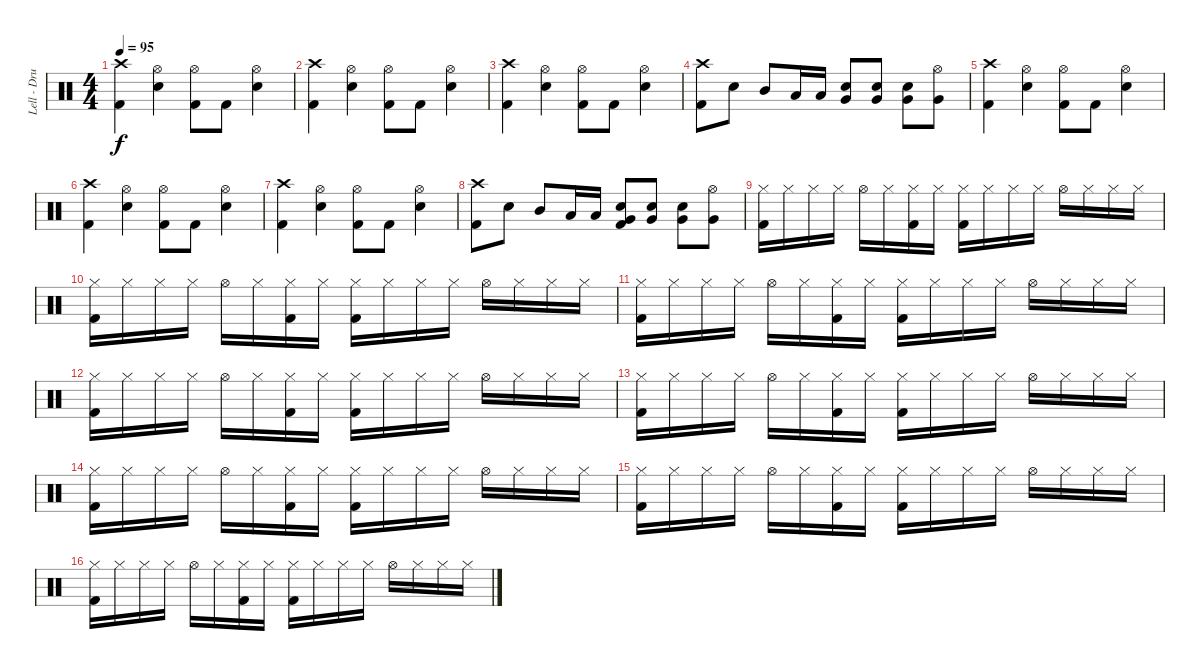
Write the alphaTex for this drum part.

\track ("Lell - Drums" "Lell - Dru") {instrument percussion}
\staff {score}
\articulation defaults
\ts (4 4)
\tempo 95
\clef neutral
\ks c
("Crash high (hit)" "Kick (hit) 2").4{dy f} ("Hi-Hat (open)" "Snare (hit) 2").4 ("Hi-Hat (open)" "Kick (hit) 2").8 "Kick (hit) 2".8 ("Hi-Hat (open)" "Snare (hit) 2").4 |
("Crash high (hit)" "Kick (hit) 2").4 ("Hi-Hat (open)" "Snare (hit) 2").4 ("Hi-Hat (open)" "Kick (hit) 2").8 "Kick (hit) 2".8 ("Hi-Hat (open)" "Snare (hit) 2").4 |
("Crash high (hit)" "Kick (hit) 2").4 ("Hi-Hat (open)" "Snare (hit) 2").4 ("Hi-Hat (open)" "Kick (hit) 2").8 "Kick (hit) 2".8 ("Hi-Hat (open)" "Snare (hit) 2").4 |
("Crash high (hit)" "Kick (hit) 2").8 "Snare (hit) 2".8 "Mid Tom (hit)".8 "Low Tom (hit)".16 "Low Tom (hit)".16 ("Very Low Tom (hit)" "Snare (hit) 2").8 ("Very Low Tom (hit)" "Snare (hit) 2").8 ("Very Low Tom (hit)" "Snare (hit) 2").8 ("Hi-Hat (open)" "Very Low Tom (hit)").8 |
("Crash high (hit)" "Kick (hit) 2").4 ("Hi-Hat (open)" "Snare (hit) 2").4 ("Hi-Hat (open)" "Kick (hit) 2").8 "Kick (hit) 2".8 ("Hi-Hat (open)" "Snare (hit) 2").4 |
("Crash high (hit)" "Kick (hit) 2").4 ("Hi-Hat (open)" "Snare (hit) 2").4 ("Hi-Hat (open)" "Kick (hit) 2").8 "Kick (hit) 2".8 ("Hi-Hat (open)" "Snare (hit) 2").4 |
("Crash high (hit)" "Kick (hit) 2").4 ("Hi-Hat (open)" "Snare (hit) 2").4 ("Hi-Hat (open)" "Kick (hit) 2").8 "Kick (hit) 2".8 ("Hi-Hat (open)" "Snare (hit) 2").4 |
("Crash high (hit)" "Kick (hit) 2").8 "Snare (hit) 2".8 "Mid Tom (hit)".8 "Low Tom (hit)".16 "Low Tom (hit)".16 ("Very Low Tom (hit)" "Snare (hit) 2" "Kick (hit) 2").8 ("Very Low Tom (hit)" "Snare (hit) 2").8 ("Very Low Tom (hit)" "Snare (hit) 2").8 ("Hi-Hat (open)" "Very Low Tom (hit)").8 |
("Hi-Hat (closed)" "Kick (hit) 2").16 "Hi-Hat (closed)".16 "Hi-Hat (closed)".16 "Hi-Hat (closed)".16 "Hi-Hat (open)".16 "Hi-Hat (closed)".16 ("Hi-Hat (closed)" "Kick (hit) 2").16 "Hi-Hat (closed)".16 ("Hi-Hat (closed)" "Kick (hit) 2").16 "Hi-Hat (closed)".16 "Hi-Hat (closed)".16 "Hi-Hat (closed)".16 "Hi-Hat (open)".16 "Hi-Hat (closed)".16 "Hi-Hat (closed)".16 "Hi-Hat (closed)".16 |
("Hi-Hat (closed)" "Kick (hit) 2").16 "Hi-Hat (closed)".16 "Hi-Hat (closed)".16 "Hi-Hat (closed)".16 "Hi-Hat (open)".16 "Hi-Hat (closed)".16 ("Hi-Hat (closed)" "Kick (hit) 2").16 "Hi-Hat (closed)".16 ("Hi-Hat (closed)" "Kick (hit) 2").16 "Hi-Hat (closed)".16 "Hi-Hat (closed)".16 "Hi-Hat (closed)".16 "Hi-Hat (open)".16 "Hi-Hat (closed)".16 "Hi-Hat (closed)".16 "Hi-Hat (closed)".16 |
("Hi-Hat (closed)" "Kick (hit) 2").16 "Hi-Hat (closed)".16 "Hi-Hat (closed)".16 "Hi-Hat (closed)".16 "Hi-Hat (open)".16 "Hi-Hat (closed)".16 ("Hi-Hat (closed)" "Kick (hit) 2").16 "Hi-Hat (closed)".16 ("Hi-Hat (closed)" "Kick (hit) 2").16 "Hi-Hat (closed)".16 "Hi-Hat (closed)".16 "Hi-Hat (closed)".16 "Hi-Hat (open)".16 "Hi-Hat (closed)".16 "Hi-Hat (closed)".16 "Hi-Hat (closed)".16 |
("Hi-Hat (closed)" "Kick (hit) 2").16 "Hi-Hat (closed)".16 "Hi-Hat (closed)".16 "Hi-Hat (closed)".16 "Hi-Hat (open)".16 "Hi-Hat (closed)".16 ("Hi-Hat (closed)" "Kick (hit) 2").16 "Hi-Hat (closed)".16 ("Hi-Hat (closed)" "Kick (hit) 2").16 "Hi-Hat (closed)".16 "Hi-Hat (closed)".16 "Hi-Hat (closed)".16 "Hi-Hat (open)".16 "Hi-Hat (closed)".16 "Hi-Hat (closed)".16 "Hi-Hat (closed)".16 |
("Hi-Hat (closed)" "Kick (hit) 2").16 "Hi-Hat (closed)".16 "Hi-Hat (closed)".16 "Hi-Hat (closed)".16 "Hi-Hat (open)".16 "Hi-Hat (closed)".16 ("Hi-Hat (closed)" "Kick (hit) 2").16 "Hi-Hat (closed)".16 ("Hi-Hat (closed)" "Kick (hit) 2").16 "Hi-Hat (closed)".16 "Hi-Hat (closed)".16 "Hi-Hat (closed)".16 "Hi-Hat (open)".16 "Hi-Hat (closed)".16 "Hi-Hat (closed)".16 "Hi-Hat (closed)".16 |
("Hi-Hat (closed)" "Kick (hit) 2").16 "Hi-Hat (closed)".16 "Hi-Hat (closed)".16 "Hi-Hat (closed)".16 "Hi-Hat (open)".16 "Hi-Hat (closed)".16 ("Hi-Hat (closed)" "Kick (hit) 2").16 "Hi-Hat (closed)".16 ("Hi-Hat (closed)" "Kick (hit) 2").16 "Hi-Hat (closed)".16 "Hi-Hat (closed)".16 "Hi-Hat (closed)".16 "Hi-Hat (open)".16 "Hi-Hat (closed)".16 "Hi-Hat (closed)".16 "Hi-Hat (closed)".16 |
("Hi-Hat (closed)" "Kick (hit) 2").16 "Hi-Hat (closed)".16 "Hi-Hat (closed)".16 "Hi-Hat (closed)".16 "Hi-Hat (open)".16 "Hi-Hat (closed)".16 ("Hi-Hat (closed)" "Kick (hit) 2").16 "Hi-Hat (closed)".16 ("Hi-Hat (closed)" "Kick (hit) 2").16 "Hi-Hat (closed)".16 "Hi-Hat (closed)".16 "Hi-Hat (closed)".16 "Hi-Hat (open)".16 "Hi-Hat (closed)".16 "Hi-Hat (closed)".16 "Hi-Hat (closed)".16 |
("Hi-Hat (closed)" "Kick (hit) 2").16 "Hi-Hat (closed)".16 "Hi-Hat (closed)".16 "Hi-Hat (closed)".16 "Hi-Hat (open)".16 "Hi-Hat (closed)".16 ("Hi-Hat (closed)" "Kick (hit) 2").16 "Hi-Hat (closed)".16 ("Hi-Hat (closed)" "Kick (hit) 2").16 "Hi-Hat (closed)".16 "Hi-Hat (closed)".16 "Hi-Hat (closed)".16 "Hi-Hat (open)".16 "Hi-Hat (closed)".16 "Hi-Hat (closed)".16 "Hi-Hat (closed)".16
